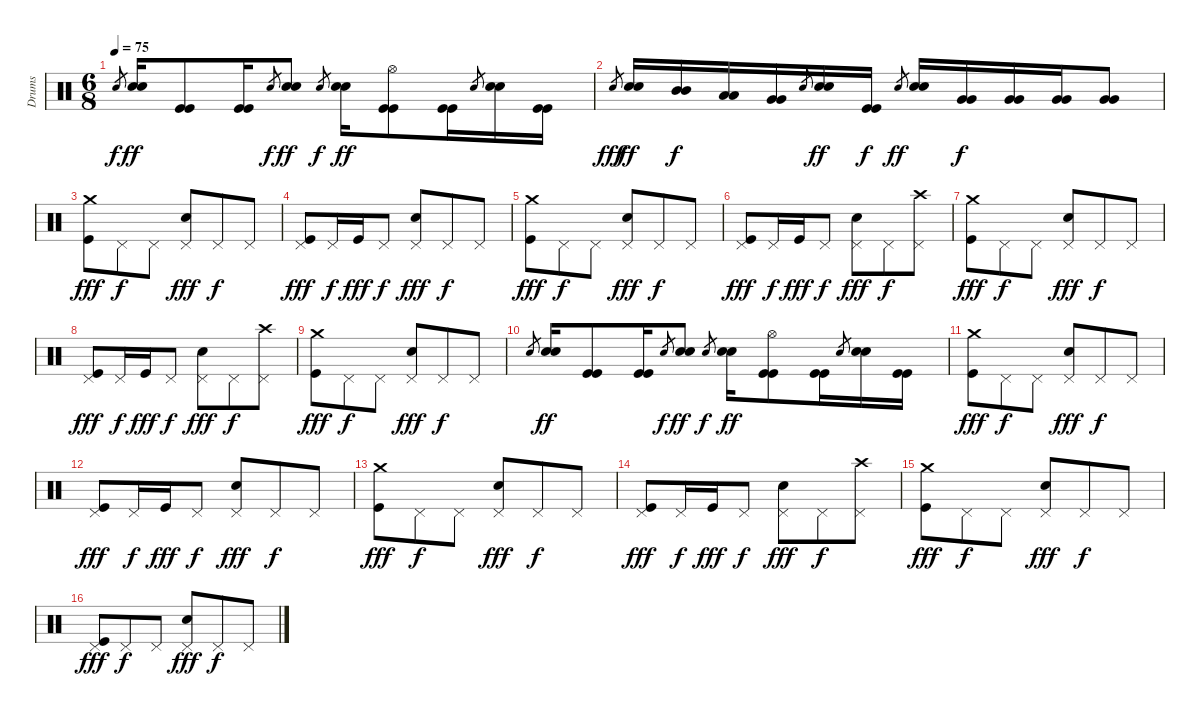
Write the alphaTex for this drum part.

\track ("Drums" "Drums") {instrument percussion}
\staff {score}
\articulation defaults
\ts (6 8)
\tempo 75
\clef neutral
\ks c "Electric Snare (hit)".8{gr dy f}
("Electric Snare (hit)" "Electric Snare (hit)").16{dy ff volume 13} ("Kick (hit)" "Kick (hit)").8 ("Kick (hit)" "Kick (hit)").16 "Electric Snare (hit)".8{gr dy f} ("Electric Snare (hit)" "Electric Snare (hit)").8{dy ff} "Electric Snare (hit)".8{gr dy f} ("Electric Snare (hit)" "Electric Snare (hit)").16{dy ff} ("Hi-Hat (open)" "Kick (hit)" "Kick (hit)").8 ("Kick (hit)" "Kick (hit)").16 "Electric Snare (hit)".8{gr} ("Electric Snare (hit)" "Electric Snare (hit)").16 ("Kick (hit)" "Kick (hit)").16 |
"Electric Snare (hit)".8{gr dy fff} ("Electric Snare (hit)" "Electric Snare (hit)").16{dy ff} ("Mid Tom (hit)" "Mid Tom (hit)").16{dy f} ("Low Tom (hit)" "Low Tom (hit)").16 ("Very Low Tom (hit)" "Very Low Tom (hit)").16 "Electric Snare (hit)".8{gr} ("Electric Snare (hit)" "Electric Snare (hit)").16{dy ff} ("Kick (hit)" "Kick (hit)").16{dy f} "Electric Snare (hit)".8{gr dy ff} ("Electric Snare (hit)" "Electric Snare (hit)").16 ("Very Low Tom (hit)" "Very Low Tom (hit)").16{dy f} ("Very Low Tom (hit)" "Very Low Tom (hit)").16 ("Very Low Tom (hit)" "Very Low Tom (hit)").16 ("Very Low Tom (hit)" "Very Low Tom (hit)").8 |
("Crash medium (hit)" "Kick (hit)").8{dy fff} "Pedal Hi-Hat (hit)".8{dy f} "Pedal Hi-Hat (hit)".8 ("Pedal Hi-Hat (hit)" "Electric Snare (hit)").8{dy fff} "Pedal Hi-Hat (hit)".8{dy f} "Pedal Hi-Hat (hit)".8 |
("Pedal Hi-Hat (hit)" "Kick (hit)").8{dy fff} "Pedal Hi-Hat (hit)".16{dy f} "Kick (hit)".16{dy fff} "Pedal Hi-Hat (hit)".8{dy f} ("Pedal Hi-Hat (hit)" "Electric Snare (hit)").8{dy fff} "Pedal Hi-Hat (hit)".8{dy f} "Pedal Hi-Hat (hit)".8 |
("Crash medium (hit)" "Kick (hit)").8{dy fff} "Pedal Hi-Hat (hit)".8{dy f} "Pedal Hi-Hat (hit)".8 ("Pedal Hi-Hat (hit)" "Electric Snare (hit)").8{dy fff} "Pedal Hi-Hat (hit)".8{dy f} "Pedal Hi-Hat (hit)".8 |
("Pedal Hi-Hat (hit)" "Kick (hit)").8{dy fff} "Pedal Hi-Hat (hit)".16{dy f} "Kick (hit)".16{dy fff} "Pedal Hi-Hat (hit)".8{dy f} ("Pedal Hi-Hat (hit)" "Electric Snare (hit)").8{dy fff} "Pedal Hi-Hat (hit)".8{dy f} ("Crash high (hit)" "Pedal Hi-Hat (hit)").8 |
("Crash medium (hit)" "Kick (hit)").8{dy fff} "Pedal Hi-Hat (hit)".8{dy f} "Pedal Hi-Hat (hit)".8 ("Pedal Hi-Hat (hit)" "Electric Snare (hit)").8{dy fff} "Pedal Hi-Hat (hit)".8{dy f} "Pedal Hi-Hat (hit)".8 |
("Pedal Hi-Hat (hit)" "Kick (hit)").8{dy fff} "Pedal Hi-Hat (hit)".16{dy f} "Kick (hit)".16{dy fff} "Pedal Hi-Hat (hit)".8{dy f} ("Pedal Hi-Hat (hit)" "Electric Snare (hit)").8{dy fff} "Pedal Hi-Hat (hit)".8{dy f} ("Crash high (hit)" "Pedal Hi-Hat (hit)").8 |
("Crash medium (hit)" "Kick (hit)").8{dy fff} "Pedal Hi-Hat (hit)".8{dy f} "Pedal Hi-Hat (hit)".8 ("Pedal Hi-Hat (hit)" "Electric Snare (hit)").8{dy fff} "Pedal Hi-Hat (hit)".8{dy f} "Pedal Hi-Hat (hit)".8 |
"Electric Snare (hit)".8{gr} ("Electric Snare (hit)" "Electric Snare (hit)").16{dy ff} ("Kick (hit)" "Kick (hit)").8 ("Kick (hit)" "Kick (hit)").16 "Electric Snare (hit)".8{gr dy f} ("Electric Snare (hit)" "Electric Snare (hit)").8{dy ff} "Electric Snare (hit)".8{gr dy f} ("Electric Snare (hit)" "Electric Snare (hit)").16{dy ff} ("Hi-Hat (open)" "Kick (hit)" "Kick (hit)").8 ("Kick (hit)" "Kick (hit)").16 "Electric Snare (hit)".8{gr} ("Electric Snare (hit)" "Electric Snare (hit)").16 ("Kick (hit)" "Kick (hit)").16 |
("Crash medium (hit)" "Kick (hit)").8{dy fff} "Pedal Hi-Hat (hit)".8{dy f} "Pedal Hi-Hat (hit)".8 ("Pedal Hi-Hat (hit)" "Electric Snare (hit)").8{dy fff} "Pedal Hi-Hat (hit)".8{dy f} "Pedal Hi-Hat (hit)".8 |
("Pedal Hi-Hat (hit)" "Kick (hit)").8{dy fff} "Pedal Hi-Hat (hit)".16{dy f} "Kick (hit)".16{dy fff} "Pedal Hi-Hat (hit)".8{dy f} ("Pedal Hi-Hat (hit)" "Electric Snare (hit)").8{dy fff} "Pedal Hi-Hat (hit)".8{dy f} "Pedal Hi-Hat (hit)".8 |
("Crash medium (hit)" "Kick (hit)").8{dy fff} "Pedal Hi-Hat (hit)".8{dy f} "Pedal Hi-Hat (hit)".8 ("Pedal Hi-Hat (hit)" "Electric Snare (hit)").8{dy fff} "Pedal Hi-Hat (hit)".8{dy f} "Pedal Hi-Hat (hit)".8 |
("Pedal Hi-Hat (hit)" "Kick (hit)").8{dy fff} "Pedal Hi-Hat (hit)".16{dy f} "Kick (hit)".16{dy fff} "Pedal Hi-Hat (hit)".8{dy f} ("Pedal Hi-Hat (hit)" "Electric Snare (hit)").8{dy fff} "Pedal Hi-Hat (hit)".8{dy f} ("Crash high (hit)" "Pedal Hi-Hat (hit)").8 |
("Crash medium (hit)" "Kick (hit)").8{dy fff} "Pedal Hi-Hat (hit)".8{dy f} "Pedal Hi-Hat (hit)".8 ("Pedal Hi-Hat (hit)" "Electric Snare (hit)").8{dy fff} "Pedal Hi-Hat (hit)".8{dy f} "Pedal Hi-Hat (hit)".8 |
("Pedal Hi-Hat (hit)" "Kick (hit)").8{dy fff} "Pedal Hi-Hat (hit)".8{dy f} "Pedal Hi-Hat (hit)".8 ("Pedal Hi-Hat (hit)" "Electric Snare (hit)").8{dy fff} "Pedal Hi-Hat (hit)".8{dy f} "Pedal Hi-Hat (hit)".8
